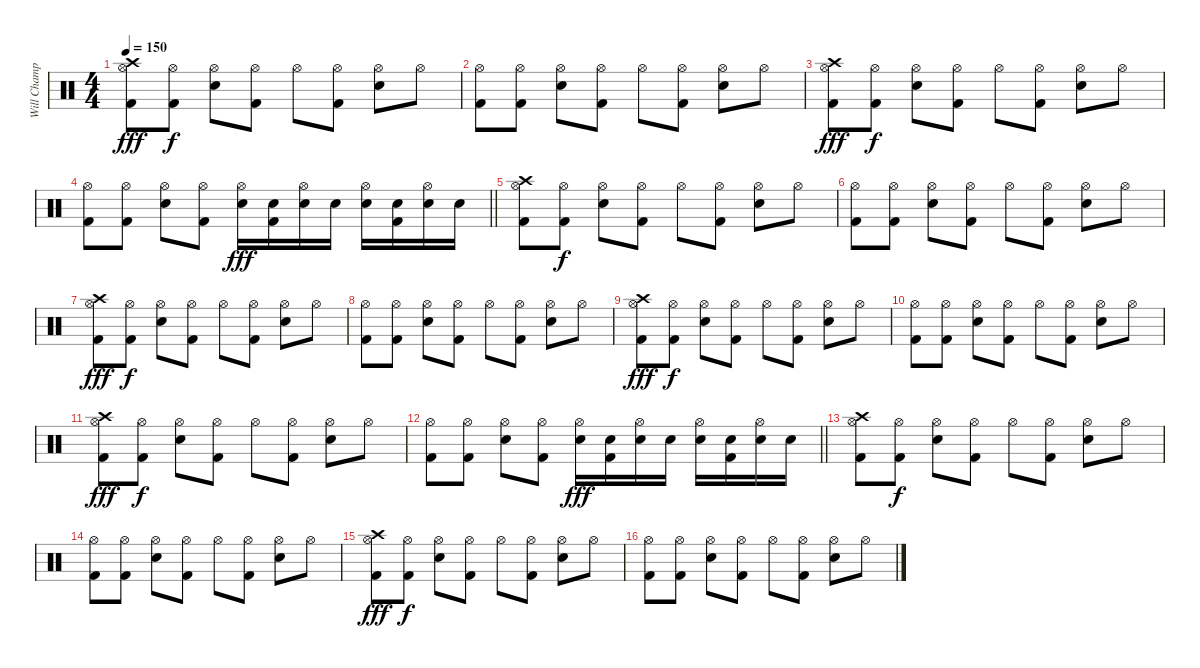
\track ("Will Champion" "Will Champ") {instrument percussion}
\staff {score}
\articulation defaults
\ts (4 4)
\tempo 150
\clef neutral
\ks c
("Kick (hit) 2" "Hi-Hat (open)" "Crash high (hit)").8{dy fff} ("Kick (hit) 2" "Hi-Hat (open)").8{dy f} ("Electric Snare (hit)" "Hi-Hat (open)").8 ("Kick (hit) 2" "Hi-Hat (open)").8 "Hi-Hat (open)".8 ("Kick (hit) 2" "Hi-Hat (open)").8 ("Electric Snare (hit)" "Hi-Hat (open)").8 "Hi-Hat (open)".8 |
("Kick (hit) 2" "Hi-Hat (open)").8 ("Kick (hit) 2" "Hi-Hat (open)").8 ("Electric Snare (hit)" "Hi-Hat (open)").8 ("Kick (hit) 2" "Hi-Hat (open)").8 "Hi-Hat (open)".8 ("Kick (hit) 2" "Hi-Hat (open)").8 ("Electric Snare (hit)" "Hi-Hat (open)").8 "Hi-Hat (open)".8 |
("Kick (hit) 2" "Hi-Hat (open)" "Crash high (hit)").8{dy fff} ("Kick (hit) 2" "Hi-Hat (open)").8{dy f} ("Electric Snare (hit)" "Hi-Hat (open)").8 ("Kick (hit) 2" "Hi-Hat (open)").8 "Hi-Hat (open)".8 ("Kick (hit) 2" "Hi-Hat (open)").8 ("Electric Snare (hit)" "Hi-Hat (open)").8 "Hi-Hat (open)".8 |
\barLineRight lightlight
("Kick (hit) 2" "Hi-Hat (open)").8 ("Kick (hit) 2" "Hi-Hat (open)").8 ("Electric Snare (hit)" "Hi-Hat (open)").8 ("Kick (hit) 2" "Hi-Hat (open)").8 ("Hi-Hat (open)" "Electric Snare (hit)").16{dy fff} ("Kick (hit) 2" "Electric Snare (hit)").16 ("Hi-Hat (open)" "Electric Snare (hit)").16 "Electric Snare (hit)".16 ("Hi-Hat (open)" "Electric Snare (hit)").16 ("Kick (hit) 2" "Electric Snare (hit)").16 ("Hi-Hat (open)" "Electric Snare (hit)").16 "Electric Snare (hit)".16 |
("Kick (hit) 2" "Hi-Hat (open)" "Crash high (hit)").8 ("Kick (hit) 2" "Hi-Hat (open)").8{dy f} ("Electric Snare (hit)" "Hi-Hat (open)").8 ("Kick (hit) 2" "Hi-Hat (open)").8 "Hi-Hat (open)".8 ("Kick (hit) 2" "Hi-Hat (open)").8 ("Electric Snare (hit)" "Hi-Hat (open)").8 "Hi-Hat (open)".8 |
("Kick (hit) 2" "Hi-Hat (open)").8 ("Kick (hit) 2" "Hi-Hat (open)").8 ("Electric Snare (hit)" "Hi-Hat (open)").8 ("Kick (hit) 2" "Hi-Hat (open)").8 "Hi-Hat (open)".8 ("Kick (hit) 2" "Hi-Hat (open)").8 ("Electric Snare (hit)" "Hi-Hat (open)").8 "Hi-Hat (open)".8 |
("Kick (hit) 2" "Hi-Hat (open)" "Crash high (hit)").8{dy fff} ("Kick (hit) 2" "Hi-Hat (open)").8{dy f} ("Electric Snare (hit)" "Hi-Hat (open)").8 ("Kick (hit) 2" "Hi-Hat (open)").8 "Hi-Hat (open)".8 ("Kick (hit) 2" "Hi-Hat (open)").8 ("Electric Snare (hit)" "Hi-Hat (open)").8 "Hi-Hat (open)".8 |
("Kick (hit) 2" "Hi-Hat (open)").8 ("Kick (hit) 2" "Hi-Hat (open)").8 ("Electric Snare (hit)" "Hi-Hat (open)").8 ("Kick (hit) 2" "Hi-Hat (open)").8 "Hi-Hat (open)".8 ("Kick (hit) 2" "Hi-Hat (open)").8 ("Electric Snare (hit)" "Hi-Hat (open)").8 "Hi-Hat (open)".8 |
("Kick (hit) 2" "Hi-Hat (open)" "Crash high (hit)").8{dy fff} ("Kick (hit) 2" "Hi-Hat (open)").8{dy f} ("Electric Snare (hit)" "Hi-Hat (open)").8 ("Kick (hit) 2" "Hi-Hat (open)").8 "Hi-Hat (open)".8 ("Kick (hit) 2" "Hi-Hat (open)").8 ("Electric Snare (hit)" "Hi-Hat (open)").8 "Hi-Hat (open)".8 |
("Kick (hit) 2" "Hi-Hat (open)").8 ("Kick (hit) 2" "Hi-Hat (open)").8 ("Electric Snare (hit)" "Hi-Hat (open)").8 ("Kick (hit) 2" "Hi-Hat (open)").8 "Hi-Hat (open)".8 ("Kick (hit) 2" "Hi-Hat (open)").8 ("Electric Snare (hit)" "Hi-Hat (open)").8 "Hi-Hat (open)".8 |
("Kick (hit) 2" "Hi-Hat (open)" "Crash high (hit)").8{dy fff} ("Kick (hit) 2" "Hi-Hat (open)").8{dy f} ("Electric Snare (hit)" "Hi-Hat (open)").8 ("Kick (hit) 2" "Hi-Hat (open)").8 "Hi-Hat (open)".8 ("Kick (hit) 2" "Hi-Hat (open)").8 ("Electric Snare (hit)" "Hi-Hat (open)").8 "Hi-Hat (open)".8 |
\barLineRight lightlight
("Kick (hit) 2" "Hi-Hat (open)").8 ("Kick (hit) 2" "Hi-Hat (open)").8 ("Electric Snare (hit)" "Hi-Hat (open)").8 ("Kick (hit) 2" "Hi-Hat (open)").8 ("Hi-Hat (open)" "Electric Snare (hit)").16{dy fff} ("Kick (hit) 2" "Electric Snare (hit)").16 ("Hi-Hat (open)" "Electric Snare (hit)").16 "Electric Snare (hit)".16 ("Hi-Hat (open)" "Electric Snare (hit)").16 ("Kick (hit) 2" "Electric Snare (hit)").16 ("Hi-Hat (open)" "Electric Snare (hit)").16 "Electric Snare (hit)".16 |
("Kick (hit) 2" "Hi-Hat (open)" "Crash high (hit)").8 ("Kick (hit) 2" "Hi-Hat (open)").8{dy f} ("Electric Snare (hit)" "Hi-Hat (open)").8 ("Kick (hit) 2" "Hi-Hat (open)").8 "Hi-Hat (open)".8 ("Kick (hit) 2" "Hi-Hat (open)").8 ("Electric Snare (hit)" "Hi-Hat (open)").8 "Hi-Hat (open)".8 |
("Kick (hit) 2" "Hi-Hat (open)").8 ("Kick (hit) 2" "Hi-Hat (open)").8 ("Electric Snare (hit)" "Hi-Hat (open)").8 ("Kick (hit) 2" "Hi-Hat (open)").8 "Hi-Hat (open)".8 ("Kick (hit) 2" "Hi-Hat (open)").8 ("Electric Snare (hit)" "Hi-Hat (open)").8 "Hi-Hat (open)".8 |
("Kick (hit) 2" "Hi-Hat (open)" "Crash high (hit)").8{dy fff} ("Kick (hit) 2" "Hi-Hat (open)").8{dy f} ("Electric Snare (hit)" "Hi-Hat (open)").8 ("Kick (hit) 2" "Hi-Hat (open)").8 "Hi-Hat (open)".8 ("Kick (hit) 2" "Hi-Hat (open)").8 ("Electric Snare (hit)" "Hi-Hat (open)").8 "Hi-Hat (open)".8 |
("Kick (hit) 2" "Hi-Hat (open)").8 ("Kick (hit) 2" "Hi-Hat (open)").8 ("Electric Snare (hit)" "Hi-Hat (open)").8 ("Kick (hit) 2" "Hi-Hat (open)").8 "Hi-Hat (open)".8 ("Kick (hit) 2" "Hi-Hat (open)").8 ("Electric Snare (hit)" "Hi-Hat (open)").8 "Hi-Hat (open)".8
